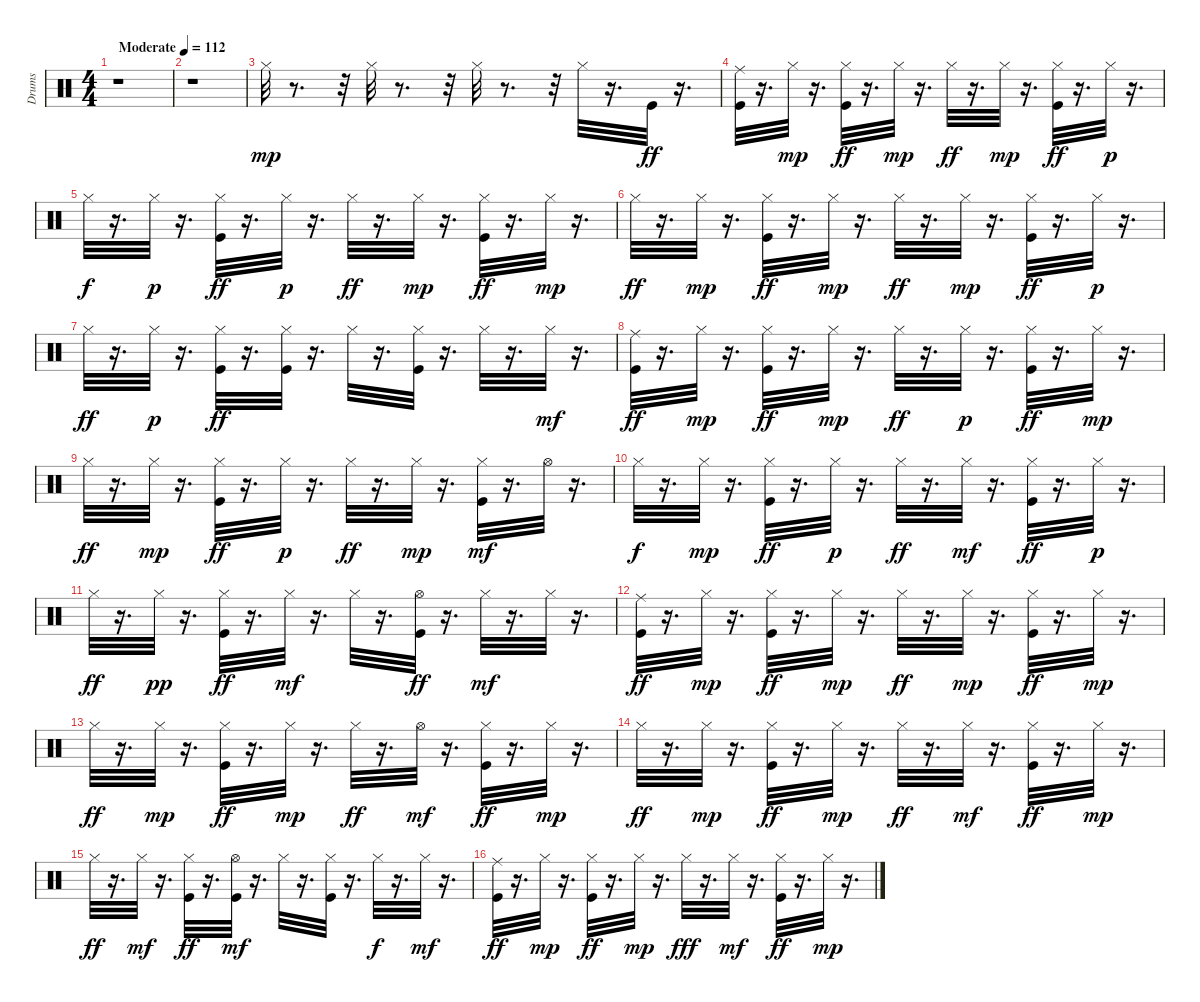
\track ("Drums" "Drums") {instrument percussion}
\staff {score}
\articulation defaults
\ts (4 4)
\tempo (112 "Moderate")
\clef neutral
\ks c
r.1{dy mp} |
r.1 |
"Hi-Hat (closed)".32 r.8{d} r.32 "Hi-Hat (closed)".32 r.8{d} r.32 "Hi-Hat (closed)".32 r.8{d} r.32 "Hi-Hat (closed)".32 r.16{d} "Kick (hit)".32{dy ff} r.16{d} |
("Ride (middle)" "Kick (hit)").32 r.16{d} "Hi-Hat (closed)".32{dy mp} r.16{d} ("Hi-Hat (closed)" "Kick (hit)").32{dy ff} r.16{d} "Hi-Hat (closed)".32{dy mp} r.16{d} "Hi-Hat (closed)".32{dy ff} r.16{d} "Hi-Hat (closed)".32{dy mp} r.16{d} ("Hi-Hat (closed)" "Kick (hit)").32{dy ff} r.16{d} "Hi-Hat (closed)".32{dy p} r.16{d} |
"Hi-Hat (closed)".32{dy f} r.16{d} "Hi-Hat (closed)".32{dy p} r.16{d} ("Hi-Hat (closed)" "Kick (hit)").32{dy ff} r.16{d} "Hi-Hat (closed)".32{dy p} r.16{d} "Hi-Hat (closed)".32{dy ff} r.16{d} "Hi-Hat (closed)".32{dy mp} r.16{d} ("Hi-Hat (closed)" "Kick (hit)").32{dy ff} r.16{d} "Hi-Hat (closed)".32{dy mp} r.16{d} |
"Hi-Hat (closed)".32{dy ff} r.16{d} "Hi-Hat (closed)".32{dy mp} r.16{d} ("Hi-Hat (closed)" "Kick (hit)").32{dy ff} r.16{d} "Hi-Hat (closed)".32{dy mp} r.16{d} "Hi-Hat (closed)".32{dy ff} r.16{d} "Hi-Hat (closed)".32{dy mp} r.16{d} ("Hi-Hat (closed)" "Kick (hit)").32{dy ff} r.16{d} "Hi-Hat (closed)".32{dy p} r.16{d} |
"Hi-Hat (closed)".32{dy ff} r.16{d} "Hi-Hat (closed)".32{dy p} r.16{d} ("Hi-Hat (closed)" "Kick (hit)").32{dy ff} r.16{d} ("Hi-Hat (closed)" "Kick (hit)").32 r.16{d} "Hi-Hat (closed)".32 r.16{d} ("Hi-Hat (closed)" "Kick (hit)").32 r.16{d} "Hi-Hat (closed)".32 r.16{d} "Hi-Hat (closed)".32{dy mf} r.16{d} |
("Kick (hit)" "Ride (middle)").32{dy ff} r.16{d} "Hi-Hat (closed)".32{dy mp} r.16{d} ("Hi-Hat (closed)" "Kick (hit)").32{dy ff} r.16{d} "Hi-Hat (closed)".32{dy mp} r.16{d} "Hi-Hat (closed)".32{dy ff} r.16{d} "Hi-Hat (closed)".32{dy p} r.16{d} ("Kick (hit)" "Hi-Hat (closed)").32{dy ff} r.16{d} "Hi-Hat (closed)".32{dy mp} r.16{d} |
"Hi-Hat (closed)".32{dy ff} r.16{d} "Hi-Hat (closed)".32{dy mp} r.16{d} ("Hi-Hat (closed)" "Kick (hit)").32{dy ff} r.16{d} "Hi-Hat (closed)".32{dy p} r.16{d} "Hi-Hat (closed)".32{dy ff} r.16{d} "Hi-Hat (closed)".32{dy mp} r.16{d} ("Kick (hit)" "Hi-Hat (closed)").32{dy mf} r.16{d} "Hi-Hat (open)".32 r.16{d} |
"Hi-Hat (closed)".32{dy f} r.16{d} "Hi-Hat (closed)".32{dy mp} r.16{d} ("Kick (hit)" "Hi-Hat (closed)").32{dy ff} r.16{d} "Hi-Hat (closed)".32{dy p} r.16{d} "Hi-Hat (closed)".32{dy ff} r.16{d} "Hi-Hat (closed)".32{dy mf} r.16{d} ("Hi-Hat (closed)" "Kick (hit)").32{dy ff} r.16{d} "Hi-Hat (closed)".32{dy p} r.16{d} |
"Hi-Hat (closed)".32{dy ff} r.16{d} "Hi-Hat (closed)".32{dy pp} r.16{d} ("Kick (hit)" "Hi-Hat (closed)").32{dy ff} r.16{d} "Hi-Hat (closed)".32{dy mf} r.16{d} "Hi-Hat (closed)".32 r.16{d} ("Hi-Hat (open)" "Kick (hit)").32{dy ff} r.16{d} "Hi-Hat (closed)".32{dy mf} r.16{d} "Hi-Hat (closed)".32 r.16{d} |
("Ride (middle)" "Kick (hit)").32{dy ff} r.16{d} "Hi-Hat (closed)".32{dy mp} r.16{d} ("Kick (hit)" "Hi-Hat (closed)").32{dy ff} r.16{d} "Hi-Hat (closed)".32{dy mp} r.16{d} "Hi-Hat (closed)".32{dy ff} r.16{d} "Hi-Hat (closed)".32{dy mp} r.16{d} ("Hi-Hat (closed)" "Kick (hit)").32{dy ff} r.16{d} "Hi-Hat (closed)".32{dy mp} r.16{d} |
"Hi-Hat (closed)".32{dy ff} r.16{d} "Hi-Hat (closed)".32{dy mp} r.16{d} ("Hi-Hat (closed)" "Kick (hit)").32{dy ff} r.16{d} "Hi-Hat (closed)".32{dy mp} r.16{d} "Hi-Hat (closed)".32{dy ff} r.16{d} "Hi-Hat (open)".32{dy mf} r.16{d} ("Kick (hit)" "Hi-Hat (closed)").32{dy ff} r.16{d} "Hi-Hat (closed)".32{dy mp} r.16{d} |
"Hi-Hat (closed)".32{dy ff} r.16{d} "Hi-Hat (closed)".32{dy mp} r.16{d} ("Hi-Hat (closed)" "Kick (hit)").32{dy ff} r.16{d} "Hi-Hat (closed)".32{dy mp} r.16{d} "Hi-Hat (closed)".32{dy ff} r.16{d} "Hi-Hat (closed)".32{dy mf} r.16{d} ("Hi-Hat (closed)" "Kick (hit)").32{dy ff} r.16{d} "Hi-Hat (closed)".32{dy mp} r.16{d} |
"Hi-Hat (closed)".32{dy ff} r.16{d} "Hi-Hat (closed)".32{dy mf} r.16{d} ("Hi-Hat (closed)" "Kick (hit)").32{dy ff} r.16{d} ("Kick (hit)" "Hi-Hat (open)").32{dy mf} r.16{d} "Hi-Hat (closed)".32 r.16{d} ("Kick (hit)" "Hi-Hat (closed)").32 r.16{d} "Hi-Hat (closed)".32{dy f} r.16{d} "Hi-Hat (closed)".32{dy mf} r.16{d} |
("Kick (hit)" "Ride (middle)").32{dy ff} r.16{d} "Hi-Hat (closed)".32{dy mp} r.16{d} ("Kick (hit)" "Hi-Hat (closed)").32{dy ff} r.16{d} "Hi-Hat (closed)".32{dy mp} r.16{d} "Hi-Hat (closed)".32{dy fff} r.16{d} "Hi-Hat (closed)".32{dy mf} r.16{d} ("Hi-Hat (closed)" "Kick (hit)").32{dy ff} r.16{d} "Hi-Hat (closed)".32{dy mp} r.16{d}
